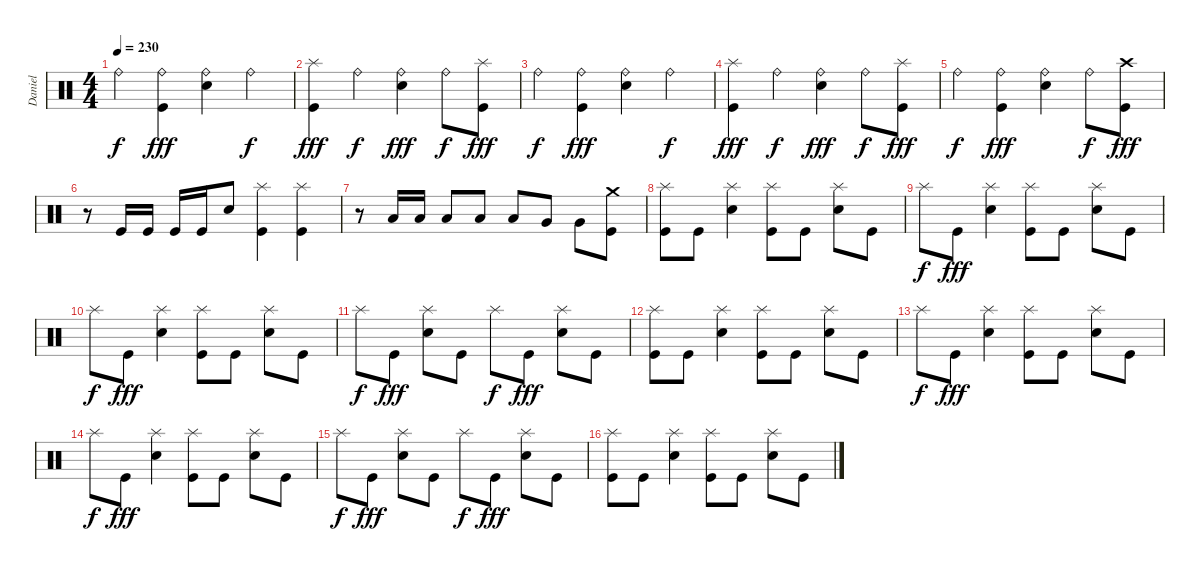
\track ("Daniel" "Daniel") {instrument percussion}
\staff {score}
\articulation defaults
\ts (4 4)
\tempo 230
\clef neutral
\ks c "Ride (bell)".4{dy f}
("Kick (hit)" "Ride (bell)").4{dy fff} ("Electric Snare (hit)" "Ride (bell)").4 "Ride (bell)".4{dy f} |
("Kick (hit)" "Splash (hit)").4{dy fff} "Ride (bell)".4{dy f} ("Electric Snare (hit)" "Ride (bell)").4{dy fff} "Ride (bell)".8{dy f} ("Kick (hit)" "Splash (hit)").8{dy fff} |
"Ride (bell)".4{dy f} ("Kick (hit)" "Ride (bell)").4{dy fff} ("Electric Snare (hit)" "Ride (bell)").4 "Ride (bell)".4{dy f} |
("Kick (hit)" "Splash (hit)").4{dy fff} "Ride (bell)".4{dy f} ("Electric Snare (hit)" "Ride (bell)").4{dy fff} "Ride (bell)".8{dy f} ("Kick (hit)" "Splash (hit)").8{dy fff} |
"Ride (bell)".4{dy f} ("Kick (hit)" "Ride (bell)").4{dy fff} ("Electric Snare (hit)" "Ride (bell)").4 "Ride (bell)".8{dy f} ("Kick (hit)" "Crash high (hit)").8{dy fff} |
r.8 "Kick (hit)".16 "Kick (hit)".16 "Kick (hit)".16 "Kick (hit)".16 "Electric Snare (hit)".8 ("Kick (hit)" "Splash (hit)").4 ("Kick (hit)" "Splash (hit)").4 |
r.8 "Low Tom (hit)".16 "Low Tom (hit)".16 "Low Tom (hit)".8 "Low Tom (hit)".8 "Low Tom (hit)".8 "Very Low Tom (hit)".8 "Very Low Tom (hit)".8 ("Kick (hit)" "Crash medium (hit)").8 |
("Kick (hit)" "Splash (hit)").8 "Kick (hit)".8 ("Electric Snare (hit)" "Splash (hit)").4 ("Kick (hit)" "Splash (hit)").8 "Kick (hit)".8 ("Electric Snare (hit)" "Splash (hit)").8 "Kick (hit)".8 |
"Splash (hit)".8{dy f} "Kick (hit)".8{dy fff} ("Electric Snare (hit)" "Splash (hit)").4 ("Kick (hit)" "Splash (hit)").8 "Kick (hit)".8 ("Electric Snare (hit)" "Splash (hit)").8 "Kick (hit)".8 |
"Splash (hit)".8{dy f} "Kick (hit)".8{dy fff} ("Electric Snare (hit)" "Splash (hit)").4 ("Kick (hit)" "Splash (hit)").8 "Kick (hit)".8 ("Electric Snare (hit)" "Splash (hit)").8 "Kick (hit)".8 |
"Splash (hit)".8{dy f} "Kick (hit)".8{dy fff} ("Electric Snare (hit)" "Splash (hit)").8 "Kick (hit)".8 "Splash (hit)".8{dy f} "Kick (hit)".8{dy fff} ("Electric Snare (hit)" "Splash (hit)").8 "Kick (hit)".8 |
("Kick (hit)" "Splash (hit)").8 "Kick (hit)".8 ("Electric Snare (hit)" "Splash (hit)").4 ("Kick (hit)" "Splash (hit)").8 "Kick (hit)".8 ("Electric Snare (hit)" "Splash (hit)").8 "Kick (hit)".8 |
"Splash (hit)".8{dy f} "Kick (hit)".8{dy fff} ("Electric Snare (hit)" "Splash (hit)").4 ("Kick (hit)" "Splash (hit)").8 "Kick (hit)".8 ("Electric Snare (hit)" "Splash (hit)").8 "Kick (hit)".8 |
"Splash (hit)".8{dy f} "Kick (hit)".8{dy fff} ("Electric Snare (hit)" "Splash (hit)").4 ("Kick (hit)" "Splash (hit)").8 "Kick (hit)".8 ("Electric Snare (hit)" "Splash (hit)").8 "Kick (hit)".8 |
"Splash (hit)".8{dy f} "Kick (hit)".8{dy fff} ("Electric Snare (hit)" "Splash (hit)").8 "Kick (hit)".8 "Splash (hit)".8{dy f} "Kick (hit)".8{dy fff} ("Electric Snare (hit)" "Splash (hit)").8 "Kick (hit)".8 |
("Kick (hit)" "Splash (hit)").8 "Kick (hit)".8 ("Electric Snare (hit)" "Splash (hit)").4 ("Kick (hit)" "Splash (hit)").8 "Kick (hit)".8 ("Electric Snare (hit)" "Splash (hit)").8 "Kick (hit)".8
